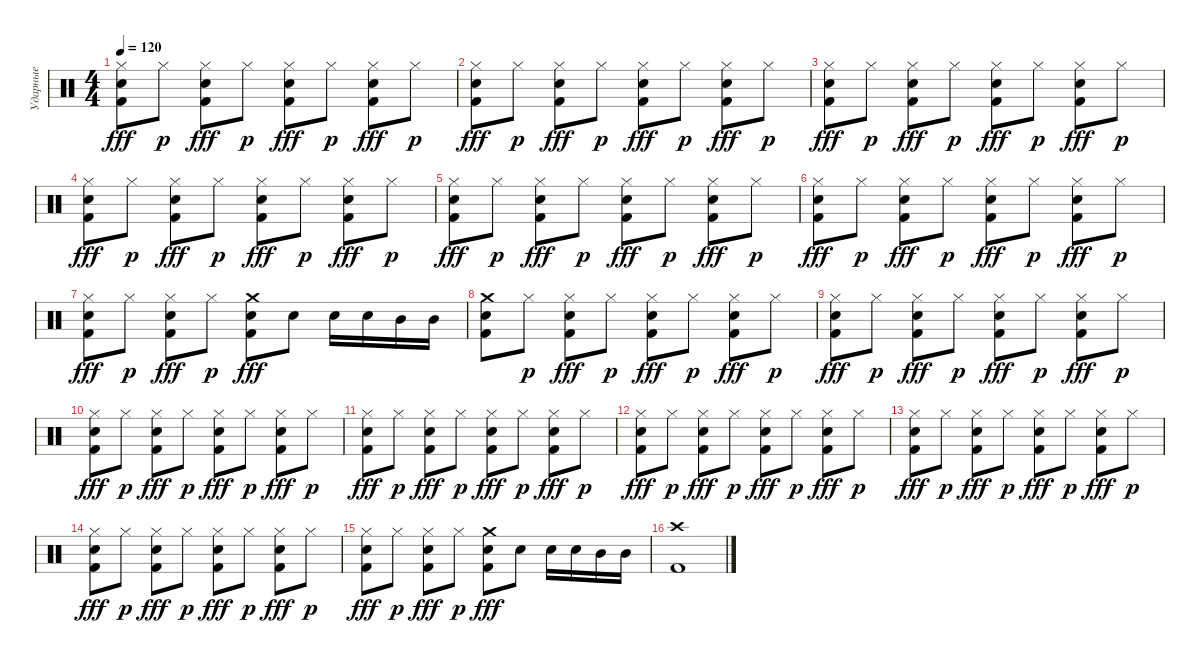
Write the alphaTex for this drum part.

\track ("Ударные" "Ударные") {instrument percussion}
\staff {score}
\articulation defaults
\ts (4 4)
\tempo 120
\clef neutral
\ks c
("Hi-Hat (closed)" "Snare (hit) 2" "Kick (hit) 2").8{dy fff} "Hi-Hat (closed)".8{dy p} ("Hi-Hat (closed)" "Snare (hit) 2" "Kick (hit) 2").8{dy fff} "Hi-Hat (closed)".8{dy p} ("Hi-Hat (closed)" "Snare (hit) 2" "Kick (hit) 2").8{dy fff} "Hi-Hat (closed)".8{dy p} ("Hi-Hat (closed)" "Snare (hit) 2" "Kick (hit) 2").8{dy fff} "Hi-Hat (closed)".8{dy p} |
("Hi-Hat (closed)" "Snare (hit) 2" "Kick (hit) 2").8{dy fff} "Hi-Hat (closed)".8{dy p} ("Hi-Hat (closed)" "Snare (hit) 2" "Kick (hit) 2").8{dy fff} "Hi-Hat (closed)".8{dy p} ("Hi-Hat (closed)" "Snare (hit) 2" "Kick (hit) 2").8{dy fff} "Hi-Hat (closed)".8{dy p} ("Hi-Hat (closed)" "Snare (hit) 2" "Kick (hit) 2").8{dy fff} "Hi-Hat (closed)".8{dy p} |
("Hi-Hat (closed)" "Snare (hit) 2" "Kick (hit) 2").8{dy fff} "Hi-Hat (closed)".8{dy p} ("Hi-Hat (closed)" "Snare (hit) 2" "Kick (hit) 2").8{dy fff} "Hi-Hat (closed)".8{dy p} ("Hi-Hat (closed)" "Snare (hit) 2" "Kick (hit) 2").8{dy fff} "Hi-Hat (closed)".8{dy p} ("Hi-Hat (closed)" "Snare (hit) 2" "Kick (hit) 2").8{dy fff} "Hi-Hat (closed)".8{dy p} |
("Hi-Hat (closed)" "Snare (hit) 2" "Kick (hit) 2").8{dy fff} "Hi-Hat (closed)".8{dy p} ("Hi-Hat (closed)" "Snare (hit) 2" "Kick (hit) 2").8{dy fff} "Hi-Hat (closed)".8{dy p} ("Hi-Hat (closed)" "Snare (hit) 2" "Kick (hit) 2").8{dy fff} "Hi-Hat (closed)".8{dy p} ("Hi-Hat (closed)" "Snare (hit) 2" "Kick (hit) 2").8{dy fff} "Hi-Hat (closed)".8{dy p} |
("Hi-Hat (closed)" "Snare (hit) 2" "Kick (hit) 2").8{dy fff} "Hi-Hat (closed)".8{dy p} ("Hi-Hat (closed)" "Snare (hit) 2" "Kick (hit) 2").8{dy fff} "Hi-Hat (closed)".8{dy p} ("Hi-Hat (closed)" "Snare (hit) 2" "Kick (hit) 2").8{dy fff} "Hi-Hat (closed)".8{dy p} ("Hi-Hat (closed)" "Snare (hit) 2" "Kick (hit) 2").8{dy fff} "Hi-Hat (closed)".8{dy p} |
("Hi-Hat (closed)" "Snare (hit) 2" "Kick (hit) 2").8{dy fff} "Hi-Hat (closed)".8{dy p} ("Hi-Hat (closed)" "Snare (hit) 2" "Kick (hit) 2").8{dy fff} "Hi-Hat (closed)".8{dy p} ("Hi-Hat (closed)" "Snare (hit) 2" "Kick (hit) 2").8{dy fff} "Hi-Hat (closed)".8{dy p} ("Hi-Hat (closed)" "Snare (hit) 2" "Kick (hit) 2").8{dy fff} "Hi-Hat (closed)".8{dy p} |
("Hi-Hat (closed)" "Snare (hit) 2" "Kick (hit) 2").8{dy fff} "Hi-Hat (closed)".8{dy p} ("Hi-Hat (closed)" "Snare (hit) 2" "Kick (hit) 2").8{dy fff} "Hi-Hat (closed)".8{dy p} ("Crash medium (hit)" "Snare (hit) 2" "Kick (hit) 2").8{dy fff} "Snare (hit) 2".8 "Snare (hit) 2".16 "Snare (hit) 2".16 "Mid Tom (hit)".16 "Mid Tom (hit)".16 |
("Crash medium (hit)" "Snare (hit) 2" "Kick (hit) 2").8 "Hi-Hat (closed)".8{dy p} ("Hi-Hat (closed)" "Snare (hit) 2" "Kick (hit) 2").8{dy fff} "Hi-Hat (closed)".8{dy p} ("Hi-Hat (closed)" "Snare (hit) 2" "Kick (hit) 2").8{dy fff} "Hi-Hat (closed)".8{dy p} ("Hi-Hat (closed)" "Snare (hit) 2" "Kick (hit) 2").8{dy fff} "Hi-Hat (closed)".8{dy p} |
("Hi-Hat (closed)" "Snare (hit) 2" "Kick (hit) 2").8{dy fff} "Hi-Hat (closed)".8{dy p} ("Hi-Hat (closed)" "Snare (hit) 2" "Kick (hit) 2").8{dy fff} "Hi-Hat (closed)".8{dy p} ("Hi-Hat (closed)" "Snare (hit) 2" "Kick (hit) 2").8{dy fff} "Hi-Hat (closed)".8{dy p} ("Hi-Hat (closed)" "Snare (hit) 2" "Kick (hit) 2").8{dy fff} "Hi-Hat (closed)".8{dy p} |
("Hi-Hat (closed)" "Snare (hit) 2" "Kick (hit) 2").8{dy fff} "Hi-Hat (closed)".8{dy p} ("Hi-Hat (closed)" "Snare (hit) 2" "Kick (hit) 2").8{dy fff} "Hi-Hat (closed)".8{dy p} ("Hi-Hat (closed)" "Snare (hit) 2" "Kick (hit) 2").8{dy fff} "Hi-Hat (closed)".8{dy p} ("Hi-Hat (closed)" "Snare (hit) 2" "Kick (hit) 2").8{dy fff} "Hi-Hat (closed)".8{dy p} |
("Hi-Hat (closed)" "Snare (hit) 2" "Kick (hit) 2").8{dy fff} "Hi-Hat (closed)".8{dy p} ("Hi-Hat (closed)" "Snare (hit) 2" "Kick (hit) 2").8{dy fff} "Hi-Hat (closed)".8{dy p} ("Hi-Hat (closed)" "Snare (hit) 2" "Kick (hit) 2").8{dy fff} "Hi-Hat (closed)".8{dy p} ("Hi-Hat (closed)" "Snare (hit) 2" "Kick (hit) 2").8{dy fff} "Hi-Hat (closed)".8{dy p} |
("Hi-Hat (closed)" "Snare (hit) 2" "Kick (hit) 2").8{dy fff} "Hi-Hat (closed)".8{dy p} ("Hi-Hat (closed)" "Snare (hit) 2" "Kick (hit) 2").8{dy fff} "Hi-Hat (closed)".8{dy p} ("Hi-Hat (closed)" "Snare (hit) 2" "Kick (hit) 2").8{dy fff} "Hi-Hat (closed)".8{dy p} ("Hi-Hat (closed)" "Snare (hit) 2" "Kick (hit) 2").8{dy fff} "Hi-Hat (closed)".8{dy p} |
("Hi-Hat (closed)" "Snare (hit) 2" "Kick (hit) 2").8{dy fff} "Hi-Hat (closed)".8{dy p} ("Hi-Hat (closed)" "Snare (hit) 2" "Kick (hit) 2").8{dy fff} "Hi-Hat (closed)".8{dy p} ("Hi-Hat (closed)" "Snare (hit) 2" "Kick (hit) 2").8{dy fff} "Hi-Hat (closed)".8{dy p} ("Hi-Hat (closed)" "Snare (hit) 2" "Kick (hit) 2").8{dy fff} "Hi-Hat (closed)".8{dy p} |
("Hi-Hat (closed)" "Snare (hit) 2" "Kick (hit) 2").8{dy fff} "Hi-Hat (closed)".8{dy p} ("Hi-Hat (closed)" "Snare (hit) 2" "Kick (hit) 2").8{dy fff} "Hi-Hat (closed)".8{dy p} ("Hi-Hat (closed)" "Snare (hit) 2" "Kick (hit) 2").8{dy fff} "Hi-Hat (closed)".8{dy p} ("Hi-Hat (closed)" "Snare (hit) 2" "Kick (hit) 2").8{dy fff} "Hi-Hat (closed)".8{dy p} |
("Hi-Hat (closed)" "Snare (hit) 2" "Kick (hit) 2").8{dy fff} "Hi-Hat (closed)".8{dy p} ("Hi-Hat (closed)" "Snare (hit) 2" "Kick (hit) 2").8{dy fff} "Hi-Hat (closed)".8{dy p} ("Crash medium (hit)" "Snare (hit) 2" "Kick (hit) 2").8{dy fff} "Snare (hit) 2".8 "Snare (hit) 2".16 "Snare (hit) 2".16 "Mid Tom (hit)".16 "Mid Tom (hit)".16 |
("Crash high (hit)" "Kick (hit) 2").1
